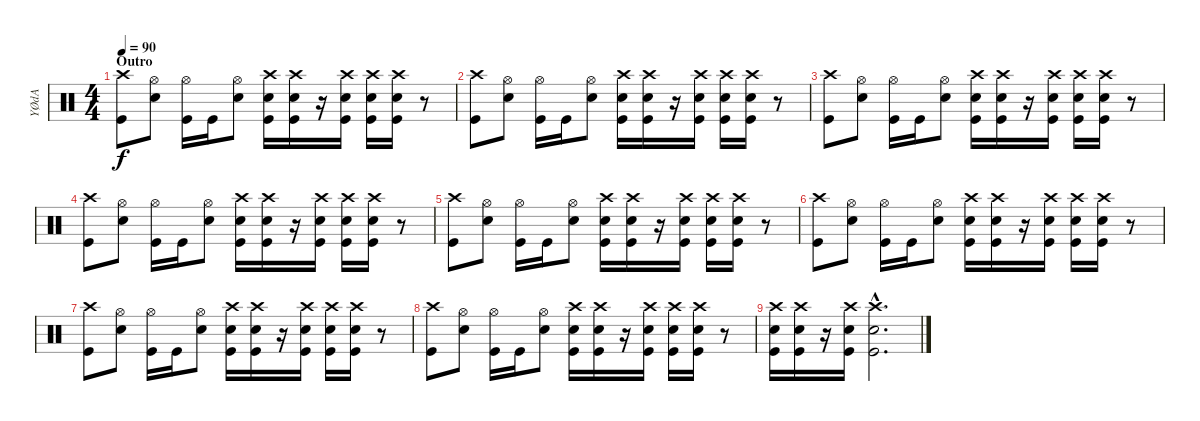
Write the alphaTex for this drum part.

\track ("YØdA" "YØdA") {instrument percussion}
\staff {score}
\articulation defaults
\ts (4 4)
\section ("" "Outro")
\tempo 90
\clef neutral
\ks c
("Crash high (hit)" "Kick (hit)").8{dy f} ("Hi-Hat (open)" "Electric Snare (hit)").8 ("Hi-Hat (open)" "Kick (hit)").16 "Kick (hit)".16 ("Hi-Hat (open)" "Electric Snare (hit)").8 ("Crash high (hit)" "Electric Snare (hit)" "Kick (hit)").16 ("Crash high (hit)" "Electric Snare (hit)" "Kick (hit)").16 r.16 ("Crash high (hit)" "Electric Snare (hit)" "Kick (hit)").16 ("Crash high (hit)" "Electric Snare (hit)" "Kick (hit)").16 ("Crash high (hit)" "Electric Snare (hit)" "Kick (hit)").16 r.8 |
("Crash high (hit)" "Kick (hit)").8 ("Hi-Hat (open)" "Electric Snare (hit)").8 ("Hi-Hat (open)" "Kick (hit)").16 "Kick (hit)".16 ("Hi-Hat (open)" "Electric Snare (hit)").8 ("Crash high (hit)" "Electric Snare (hit)" "Kick (hit)").16 ("Crash high (hit)" "Electric Snare (hit)" "Kick (hit)").16 r.16 ("Crash high (hit)" "Electric Snare (hit)" "Kick (hit)").16 ("Crash high (hit)" "Electric Snare (hit)" "Kick (hit)").16 ("Crash high (hit)" "Electric Snare (hit)" "Kick (hit)").16 r.8 |
("Crash high (hit)" "Kick (hit)").8 ("Hi-Hat (open)" "Electric Snare (hit)").8 ("Hi-Hat (open)" "Kick (hit)").16 "Kick (hit)".16 ("Hi-Hat (open)" "Electric Snare (hit)").8 ("Crash high (hit)" "Electric Snare (hit)" "Kick (hit)").16 ("Crash high (hit)" "Electric Snare (hit)" "Kick (hit)").16 r.16 ("Crash high (hit)" "Electric Snare (hit)" "Kick (hit)").16 ("Crash high (hit)" "Electric Snare (hit)" "Kick (hit)").16 ("Crash high (hit)" "Electric Snare (hit)" "Kick (hit)").16 r.8 |
("Crash high (hit)" "Kick (hit)").8 ("Hi-Hat (open)" "Electric Snare (hit)").8 ("Hi-Hat (open)" "Kick (hit)").16 "Kick (hit)".16 ("Hi-Hat (open)" "Electric Snare (hit)").8 ("Crash high (hit)" "Electric Snare (hit)" "Kick (hit)").16 ("Crash high (hit)" "Electric Snare (hit)" "Kick (hit)").16 r.16 ("Crash high (hit)" "Electric Snare (hit)" "Kick (hit)").16 ("Crash high (hit)" "Electric Snare (hit)" "Kick (hit)").16 ("Crash high (hit)" "Electric Snare (hit)" "Kick (hit)").16 r.8 |
("Crash high (hit)" "Kick (hit)").8 ("Hi-Hat (open)" "Electric Snare (hit)").8 ("Hi-Hat (open)" "Kick (hit)").16 "Kick (hit)".16 ("Hi-Hat (open)" "Electric Snare (hit)").8 ("Crash high (hit)" "Electric Snare (hit)" "Kick (hit)").16 ("Crash high (hit)" "Electric Snare (hit)" "Kick (hit)").16 r.16 ("Crash high (hit)" "Electric Snare (hit)" "Kick (hit)").16 ("Crash high (hit)" "Electric Snare (hit)" "Kick (hit)").16 ("Crash high (hit)" "Electric Snare (hit)" "Kick (hit)").16 r.8 |
("Crash high (hit)" "Kick (hit)").8 ("Hi-Hat (open)" "Electric Snare (hit)").8 ("Hi-Hat (open)" "Kick (hit)").16 "Kick (hit)".16 ("Hi-Hat (open)" "Electric Snare (hit)").8 ("Crash high (hit)" "Electric Snare (hit)" "Kick (hit)").16 ("Crash high (hit)" "Electric Snare (hit)" "Kick (hit)").16 r.16 ("Crash high (hit)" "Electric Snare (hit)" "Kick (hit)").16 ("Crash high (hit)" "Electric Snare (hit)" "Kick (hit)").16 ("Crash high (hit)" "Electric Snare (hit)" "Kick (hit)").16 r.8 |
("Crash high (hit)" "Kick (hit)").8 ("Hi-Hat (open)" "Electric Snare (hit)").8 ("Hi-Hat (open)" "Kick (hit)").16 "Kick (hit)".16 ("Hi-Hat (open)" "Electric Snare (hit)").8 ("Crash high (hit)" "Electric Snare (hit)" "Kick (hit)").16 ("Crash high (hit)" "Electric Snare (hit)" "Kick (hit)").16 r.16 ("Crash high (hit)" "Electric Snare (hit)" "Kick (hit)").16 ("Crash high (hit)" "Electric Snare (hit)" "Kick (hit)").16 ("Crash high (hit)" "Electric Snare (hit)" "Kick (hit)").16 r.8 |
("Crash high (hit)" "Kick (hit)").8 ("Hi-Hat (open)" "Electric Snare (hit)").8 ("Hi-Hat (open)" "Kick (hit)").16 "Kick (hit)".16 ("Hi-Hat (open)" "Electric Snare (hit)").8 ("Crash high (hit)" "Electric Snare (hit)" "Kick (hit)").16 ("Crash high (hit)" "Electric Snare (hit)" "Kick (hit)").16 r.16 ("Crash high (hit)" "Electric Snare (hit)" "Kick (hit)").16 ("Crash high (hit)" "Electric Snare (hit)" "Kick (hit)").16 ("Crash high (hit)" "Electric Snare (hit)" "Kick (hit)").16 r.8 |
("Crash high (hit)" "Electric Snare (hit)" "Kick (hit)").16 ("Crash high (hit)" "Electric Snare (hit)" "Kick (hit)").16 r.16 ("Crash high (hit)" "Electric Snare (hit)" "Kick (hit)").16 ("Crash high (hit)"{hac} "Electric Snare (hit)"{hac} "Kick (hit)"{hac}).2{d}
